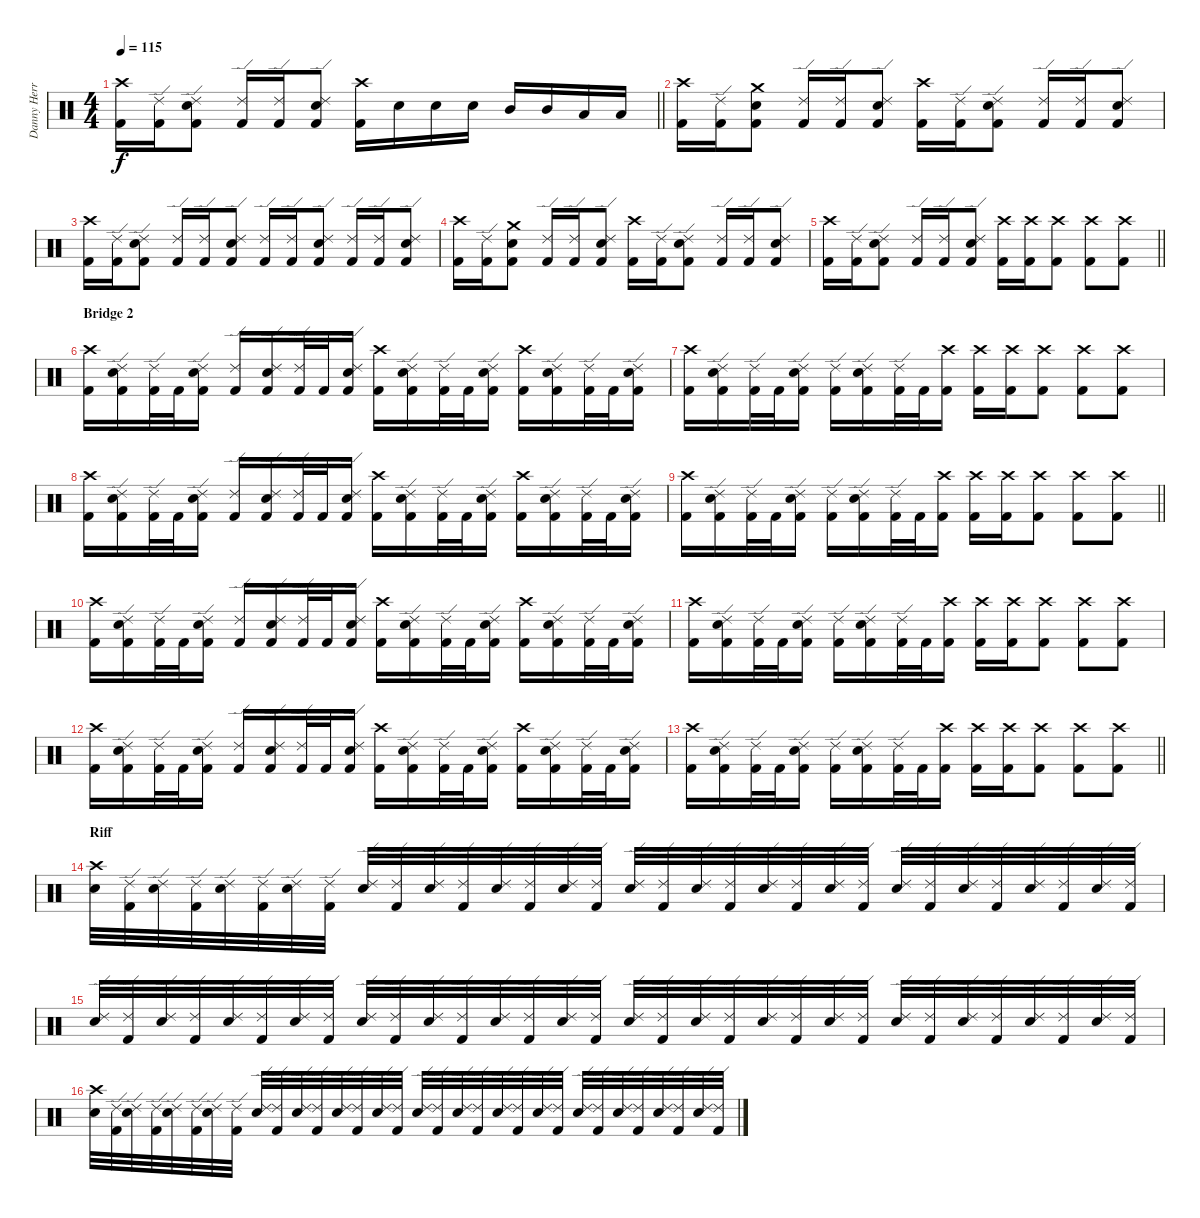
\track ("Danny Herrera " "Danny Herr") {instrument percussion}
\staff {score}
\articulation defaults
\ts (4 4)
\tempo 115
\clef neutral
\barLineRight lightlight
\ks c
("Kick (hit) 2" "Crash high (hit)").16{dy f} ("Kick (hit) 2" "Ride (edge) 2").16 ("Kick (hit) 2" "Snare (hit) 2" "Ride (edge) 2").8 ("Kick (hit) 2" "Ride (edge) 2").16 ("Kick (hit) 2" "Ride (edge) 2").16 ("Kick (hit) 2" "Snare (hit) 2" "Ride (edge) 2").8 ("Kick (hit) 2" "Crash high (hit)").16 "Snare (hit) 2".16 "Snare (hit) 2".16 "Snare (hit) 2".16 "Mid Tom (hit)".16 "Mid Tom (hit)".16 "Low Tom (hit)".16 "Low Tom (hit)".16 |
("Kick (hit) 2" "Crash high (hit)").16 ("Kick (hit) 2" "Ride (edge) 2").16 ("Kick (hit) 2" "Snare (hit) 2" "Crash medium (hit)").8 ("Kick (hit) 2" "Ride (edge) 2").16 ("Kick (hit) 2" "Ride (edge) 2").16 ("Kick (hit) 2" "Snare (hit) 2" "Ride (edge) 2").8 ("Kick (hit) 2" "Crash high (hit)").16 ("Kick (hit) 2" "Ride (edge) 2").16 ("Kick (hit) 2" "Snare (hit) 2" "Ride (edge) 2").8 ("Kick (hit) 2" "Ride (edge) 2").16 ("Kick (hit) 2" "Ride (edge) 2").16 ("Kick (hit) 2" "Snare (hit) 2" "Ride (edge) 2").8 |
("Kick (hit) 2" "Crash high (hit)").16 ("Kick (hit) 2" "Ride (edge) 2").16 ("Kick (hit) 2" "Snare (hit) 2" "Ride (edge) 2").8 ("Kick (hit) 2" "Ride (edge) 2").16 ("Kick (hit) 2" "Ride (edge) 2").16 ("Kick (hit) 2" "Snare (hit) 2" "Ride (edge) 2").8 ("Kick (hit) 2" "Ride (edge) 2").16 ("Kick (hit) 2" "Ride (edge) 2").16 ("Kick (hit) 2" "Snare (hit) 2" "Ride (edge) 2").8 ("Kick (hit) 2" "Ride (edge) 2").16 ("Kick (hit) 2" "Ride (edge) 2").16 ("Kick (hit) 2" "Snare (hit) 2" "Ride (edge) 2").8 |
("Kick (hit) 2" "Crash high (hit)").16 ("Kick (hit) 2" "Ride (edge) 2").16 ("Kick (hit) 2" "Snare (hit) 2" "Crash medium (hit)").8 ("Kick (hit) 2" "Ride (edge) 2").16 ("Kick (hit) 2" "Ride (edge) 2").16 ("Kick (hit) 2" "Snare (hit) 2" "Ride (edge) 2").8 ("Kick (hit) 2" "Crash high (hit)").16 ("Kick (hit) 2" "Ride (edge) 2").16 ("Kick (hit) 2" "Snare (hit) 2" "Ride (edge) 2").8 ("Kick (hit) 2" "Ride (edge) 2").16 ("Kick (hit) 2" "Ride (edge) 2").16 ("Kick (hit) 2" "Snare (hit) 2" "Ride (edge) 2").8 |
\barLineRight lightlight
("Kick (hit) 2" "Crash high (hit)").16 ("Kick (hit) 2" "Ride (edge) 2").16 ("Kick (hit) 2" "Snare (hit) 2" "Ride (edge) 2").8 ("Kick (hit) 2" "Ride (edge) 2").16 ("Kick (hit) 2" "Ride (edge) 2").16 ("Kick (hit) 2" "Snare (hit) 2" "Ride (edge) 2").8 ("Kick (hit) 2" "Crash high (hit)").16 ("Kick (hit) 2" "Crash high (hit)").16 ("Kick (hit) 2" "Crash high (hit)").8 ("Kick (hit) 2" "Crash high (hit)").8 ("Kick (hit) 2" "Crash high (hit)").8 |
\section ("" "Bridge 2")
("Kick (hit) 2" "Crash high (hit)").16 ("Kick (hit) 2" "Snare (hit) 2" "Ride (edge) 2").16 ("Kick (hit) 2" "Ride (edge) 2").32 "Kick (hit) 2".32 ("Kick (hit) 2" "Snare (hit) 2" "Ride (edge) 2").16 ("Kick (hit) 2" "Ride (edge) 2").16 ("Kick (hit) 2" "Snare (hit) 2" "Ride (edge) 2").16 ("Kick (hit) 2" "Ride (edge) 2").32 "Kick (hit) 2".32 ("Kick (hit) 2" "Snare (hit) 2" "Ride (edge) 2").16 ("Kick (hit) 2" "Crash high (hit)").16 ("Kick (hit) 2" "Snare (hit) 2" "Ride (edge) 2").16 ("Kick (hit) 2" "Ride (edge) 2").32 "Kick (hit) 2".32 ("Kick (hit) 2" "Snare (hit) 2" "Ride (edge) 2").16 ("Kick (hit) 2" "Crash high (hit)").16 ("Kick (hit) 2" "Snare (hit) 2" "Ride (edge) 2").16 ("Kick (hit) 2" "Ride (edge) 2").32 "Kick (hit) 2".32 ("Kick (hit) 2" "Snare (hit) 2" "Ride (edge) 2").16 |
("Kick (hit) 2" "Crash high (hit)").16 ("Kick (hit) 2" "Snare (hit) 2" "Ride (edge) 2").16 ("Kick (hit) 2" "Ride (edge) 2").32 "Kick (hit) 2".32 ("Kick (hit) 2" "Snare (hit) 2" "Ride (edge) 2").16 ("Kick (hit) 2" "Ride (edge) 2").16 ("Kick (hit) 2" "Snare (hit) 2" "Ride (edge) 2").16 ("Kick (hit) 2" "Ride (edge) 2").32 "Kick (hit) 2".32 ("Kick (hit) 2" "Crash high (hit)").16 ("Kick (hit) 2" "Crash high (hit)").16 ("Kick (hit) 2" "Crash high (hit)").16 ("Kick (hit) 2" "Crash high (hit)").8 ("Kick (hit) 2" "Crash high (hit)").8 ("Kick (hit) 2" "Crash high (hit)").8 |
("Kick (hit) 2" "Crash high (hit)").16 ("Kick (hit) 2" "Snare (hit) 2" "Ride (edge) 2").16 ("Kick (hit) 2" "Ride (edge) 2").32 "Kick (hit) 2".32 ("Kick (hit) 2" "Snare (hit) 2" "Ride (edge) 2").16 ("Kick (hit) 2" "Ride (edge) 2").16 ("Kick (hit) 2" "Snare (hit) 2" "Ride (edge) 2").16 ("Kick (hit) 2" "Ride (edge) 2").32 "Kick (hit) 2".32 ("Kick (hit) 2" "Snare (hit) 2" "Ride (edge) 2").16 ("Kick (hit) 2" "Crash high (hit)").16 ("Kick (hit) 2" "Snare (hit) 2" "Ride (edge) 2").16 ("Kick (hit) 2" "Ride (edge) 2").32 "Kick (hit) 2".32 ("Kick (hit) 2" "Snare (hit) 2" "Ride (edge) 2").16 ("Kick (hit) 2" "Crash high (hit)").16 ("Kick (hit) 2" "Snare (hit) 2" "Ride (edge) 2").16 ("Kick (hit) 2" "Ride (edge) 2").32 "Kick (hit) 2".32 ("Kick (hit) 2" "Snare (hit) 2" "Ride (edge) 2").16 |
\barLineRight lightlight
("Kick (hit) 2" "Crash high (hit)").16 ("Kick (hit) 2" "Snare (hit) 2" "Ride (edge) 2").16 ("Kick (hit) 2" "Ride (edge) 2").32 "Kick (hit) 2".32 ("Kick (hit) 2" "Snare (hit) 2" "Ride (edge) 2").16 ("Kick (hit) 2" "Ride (edge) 2").16 ("Kick (hit) 2" "Snare (hit) 2" "Ride (edge) 2").16 ("Kick (hit) 2" "Ride (edge) 2").32 "Kick (hit) 2".32 ("Kick (hit) 2" "Crash high (hit)").16 ("Kick (hit) 2" "Crash high (hit)").16 ("Kick (hit) 2" "Crash high (hit)").16 ("Kick (hit) 2" "Crash high (hit)").8 ("Kick (hit) 2" "Crash high (hit)").8 ("Kick (hit) 2" "Crash high (hit)").8 |
("Kick (hit) 2" "Crash high (hit)").16 ("Kick (hit) 2" "Snare (hit) 2" "Ride (edge) 2").16 ("Kick (hit) 2" "Ride (edge) 2").32 "Kick (hit) 2".32 ("Kick (hit) 2" "Snare (hit) 2" "Ride (edge) 2").16 ("Kick (hit) 2" "Ride (edge) 2").16 ("Kick (hit) 2" "Snare (hit) 2" "Ride (edge) 2").16 ("Kick (hit) 2" "Ride (edge) 2").32 "Kick (hit) 2".32 ("Kick (hit) 2" "Snare (hit) 2" "Ride (edge) 2").16 ("Kick (hit) 2" "Crash high (hit)").16 ("Kick (hit) 2" "Snare (hit) 2" "Ride (edge) 2").16 ("Kick (hit) 2" "Ride (edge) 2").32 "Kick (hit) 2".32 ("Kick (hit) 2" "Snare (hit) 2" "Ride (edge) 2").16 ("Kick (hit) 2" "Crash high (hit)").16 ("Kick (hit) 2" "Snare (hit) 2" "Ride (edge) 2").16 ("Kick (hit) 2" "Ride (edge) 2").32 "Kick (hit) 2".32 ("Kick (hit) 2" "Snare (hit) 2" "Ride (edge) 2").16 |
("Kick (hit) 2" "Crash high (hit)").16 ("Kick (hit) 2" "Snare (hit) 2" "Ride (edge) 2").16 ("Kick (hit) 2" "Ride (edge) 2").32 "Kick (hit) 2".32 ("Kick (hit) 2" "Snare (hit) 2" "Ride (edge) 2").16 ("Kick (hit) 2" "Ride (edge) 2").16 ("Kick (hit) 2" "Snare (hit) 2" "Ride (edge) 2").16 ("Kick (hit) 2" "Ride (edge) 2").32 "Kick (hit) 2".32 ("Kick (hit) 2" "Crash high (hit)").16 ("Kick (hit) 2" "Crash high (hit)").16 ("Kick (hit) 2" "Crash high (hit)").16 ("Kick (hit) 2" "Crash high (hit)").8 ("Kick (hit) 2" "Crash high (hit)").8 ("Kick (hit) 2" "Crash high (hit)").8 |
("Kick (hit) 2" "Crash high (hit)").16 ("Kick (hit) 2" "Snare (hit) 2" "Ride (edge) 2").16 ("Kick (hit) 2" "Ride (edge) 2").32 "Kick (hit) 2".32 ("Kick (hit) 2" "Snare (hit) 2" "Ride (edge) 2").16 ("Kick (hit) 2" "Ride (edge) 2").16 ("Kick (hit) 2" "Snare (hit) 2" "Ride (edge) 2").16 ("Kick (hit) 2" "Ride (edge) 2").32 "Kick (hit) 2".32 ("Kick (hit) 2" "Snare (hit) 2" "Ride (edge) 2").16 ("Kick (hit) 2" "Crash high (hit)").16 ("Kick (hit) 2" "Snare (hit) 2" "Ride (edge) 2").16 ("Kick (hit) 2" "Ride (edge) 2").32 "Kick (hit) 2".32 ("Kick (hit) 2" "Snare (hit) 2" "Ride (edge) 2").16 ("Kick (hit) 2" "Crash high (hit)").16 ("Kick (hit) 2" "Snare (hit) 2" "Ride (edge) 2").16 ("Kick (hit) 2" "Ride (edge) 2").32 "Kick (hit) 2".32 ("Kick (hit) 2" "Snare (hit) 2" "Ride (edge) 2").16 |
\barLineRight lightlight
("Kick (hit) 2" "Crash high (hit)").16 ("Kick (hit) 2" "Snare (hit) 2" "Ride (edge) 2").16 ("Kick (hit) 2" "Ride (edge) 2").32 "Kick (hit) 2".32 ("Kick (hit) 2" "Snare (hit) 2" "Ride (edge) 2").16 ("Kick (hit) 2" "Ride (edge) 2").16 ("Kick (hit) 2" "Snare (hit) 2" "Ride (edge) 2").16 ("Kick (hit) 2" "Ride (edge) 2").32 "Kick (hit) 2".32 ("Kick (hit) 2" "Crash high (hit)").16 ("Kick (hit) 2" "Crash high (hit)").16 ("Kick (hit) 2" "Crash high (hit)").16 ("Kick (hit) 2" "Crash high (hit)").8 ("Kick (hit) 2" "Crash high (hit)").8 ("Kick (hit) 2" "Crash high (hit)").8 |
\section ("" "Riff")
("Snare (hit) 2" "Crash high (hit)").32 ("Kick (hit) 2" "Ride (edge) 2").32 ("Snare (hit) 2" "Ride (edge) 2").32 ("Kick (hit) 2" "Ride (edge) 2").32 ("Snare (hit) 2" "Ride (edge) 2").32 ("Kick (hit) 2" "Ride (edge) 2").32 ("Snare (hit) 2" "Ride (edge) 2").32 ("Kick (hit) 2" "Ride (edge) 2").32 ("Snare (hit) 2" "Ride (edge) 2").32 ("Kick (hit) 2" "Ride (edge) 2").32 ("Snare (hit) 2" "Ride (edge) 2").32 ("Kick (hit) 2" "Ride (edge) 2").32 ("Snare (hit) 2" "Ride (edge) 2").32 ("Kick (hit) 2" "Ride (edge) 2").32 ("Snare (hit) 2" "Ride (edge) 2").32 ("Kick (hit) 2" "Ride (edge) 2").32 ("Snare (hit) 2" "Ride (edge) 2").32 ("Kick (hit) 2" "Ride (edge) 2").32 ("Snare (hit) 2" "Ride (edge) 2").32 ("Kick (hit) 2" "Ride (edge) 2").32 ("Snare (hit) 2" "Ride (edge) 2").32 ("Kick (hit) 2" "Ride (edge) 2").32 ("Snare (hit) 2" "Ride (edge) 2").32 ("Kick (hit) 2" "Ride (edge) 2").32 ("Snare (hit) 2" "Ride (edge) 2").32 ("Kick (hit) 2" "Ride (edge) 2").32 ("Snare (hit) 2" "Ride (edge) 2").32 ("Kick (hit) 2" "Ride (edge) 2").32 ("Snare (hit) 2" "Ride (edge) 2").32 ("Kick (hit) 2" "Ride (edge) 2").32 ("Snare (hit) 2" "Ride (edge) 2").32 ("Kick (hit) 2" "Ride (edge) 2").32 |
("Snare (hit) 2" "Ride (edge) 2").32 ("Kick (hit) 2" "Ride (edge) 2").32 ("Snare (hit) 2" "Ride (edge) 2").32 ("Kick (hit) 2" "Ride (edge) 2").32 ("Snare (hit) 2" "Ride (edge) 2").32 ("Kick (hit) 2" "Ride (edge) 2").32 ("Snare (hit) 2" "Ride (edge) 2").32 ("Kick (hit) 2" "Ride (edge) 2").32 ("Snare (hit) 2" "Ride (edge) 2").32 ("Kick (hit) 2" "Ride (edge) 2").32 ("Snare (hit) 2" "Ride (edge) 2").32 ("Kick (hit) 2" "Ride (edge) 2").32 ("Snare (hit) 2" "Ride (edge) 2").32 ("Kick (hit) 2" "Ride (edge) 2").32 ("Snare (hit) 2" "Ride (edge) 2").32 ("Kick (hit) 2" "Ride (edge) 2").32 ("Snare (hit) 2" "Ride (edge) 2").32 ("Kick (hit) 2" "Ride (edge) 2").32 ("Snare (hit) 2" "Ride (edge) 2").32 ("Kick (hit) 2" "Ride (edge) 2").32 ("Snare (hit) 2" "Ride (edge) 2").32 ("Kick (hit) 2" "Ride (edge) 2").32 ("Snare (hit) 2" "Ride (edge) 2").32 ("Kick (hit) 2" "Ride (edge) 2").32 ("Snare (hit) 2" "Ride (edge) 2").32 ("Kick (hit) 2" "Ride (edge) 2").32 ("Snare (hit) 2" "Ride (edge) 2").32 ("Kick (hit) 2" "Ride (edge) 2").32 ("Snare (hit) 2" "Ride (edge) 2").32 ("Kick (hit) 2" "Ride (edge) 2").32 ("Snare (hit) 2" "Ride (edge) 2").32 ("Kick (hit) 2" "Ride (edge) 2").32 |
("Snare (hit) 2" "Crash high (hit)").32 ("Kick (hit) 2" "Ride (edge) 2").32 ("Snare (hit) 2" "Ride (edge) 2").32 ("Kick (hit) 2" "Ride (edge) 2").32 ("Snare (hit) 2" "Ride (edge) 2").32 ("Kick (hit) 2" "Ride (edge) 2").32 ("Snare (hit) 2" "Ride (edge) 2").32 ("Kick (hit) 2" "Ride (edge) 2").32 ("Snare (hit) 2" "Ride (edge) 2").32 ("Kick (hit) 2" "Ride (edge) 2").32 ("Snare (hit) 2" "Ride (edge) 2").32 ("Kick (hit) 2" "Ride (edge) 2").32 ("Snare (hit) 2" "Ride (edge) 2").32 ("Kick (hit) 2" "Ride (edge) 2").32 ("Snare (hit) 2" "Ride (edge) 2").32 ("Kick (hit) 2" "Ride (edge) 2").32 ("Snare (hit) 2" "Ride (edge) 2").32 ("Kick (hit) 2" "Ride (edge) 2").32 ("Snare (hit) 2" "Ride (edge) 2").32 ("Kick (hit) 2" "Ride (edge) 2").32 ("Snare (hit) 2" "Ride (edge) 2").32 ("Kick (hit) 2" "Ride (edge) 2").32 ("Snare (hit) 2" "Ride (edge) 2").32 ("Kick (hit) 2" "Ride (edge) 2").32 ("Snare (hit) 2" "Ride (edge) 2").32 ("Kick (hit) 2" "Ride (edge) 2").32 ("Snare (hit) 2" "Ride (edge) 2").32 ("Kick (hit) 2" "Ride (edge) 2").32 ("Snare (hit) 2" "Ride (edge) 2").32 ("Kick (hit) 2" "Ride (edge) 2").32 ("Snare (hit) 2" "Ride (edge) 2").32 ("Kick (hit) 2" "Ride (edge) 2").32
